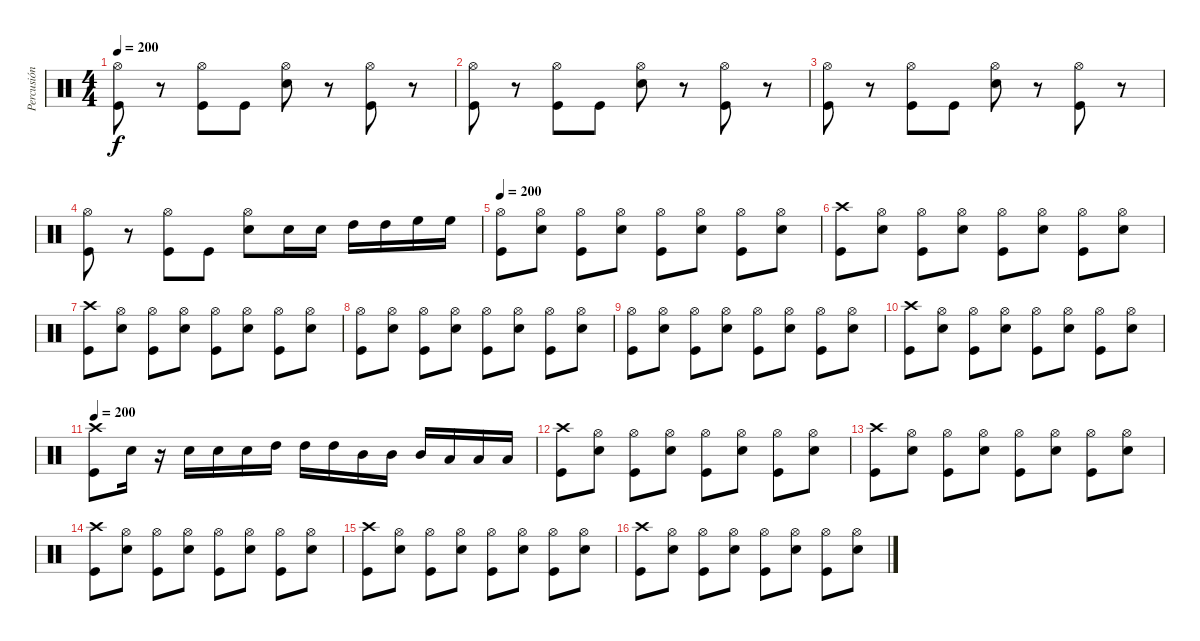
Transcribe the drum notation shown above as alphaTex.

\track ("Percusión" "Percusión") {instrument percussion}
\staff {score}
\articulation defaults
\ts (4 4)
\tempo 200
\clef neutral
\ks c
("Hi-Hat (open)" "Kick (hit)").8{dy f} r.8 ("Hi-Hat (open)" "Kick (hit)").8 "Kick (hit)".8 ("Hi-Hat (open)" "Snare (hit) 2").8 r.8 ("Hi-Hat (open)" "Kick (hit)").8 r.8 |
("Hi-Hat (open)" "Kick (hit)").8 r.8 ("Hi-Hat (open)" "Kick (hit)").8 "Kick (hit)".8 ("Hi-Hat (open)" "Snare (hit) 2").8 r.8 ("Hi-Hat (open)" "Kick (hit)").8 r.8 |
("Hi-Hat (open)" "Kick (hit)").8 r.8 ("Hi-Hat (open)" "Kick (hit)").8 "Kick (hit)".8 ("Hi-Hat (open)" "Snare (hit) 2").8 r.8 ("Hi-Hat (open)" "Kick (hit)").8 r.8 |
("Hi-Hat (open)" "Kick (hit)").8 r.8 ("Hi-Hat (open)" "Kick (hit)").8 "Kick (hit)".8 ("Hi-Hat (open)" "Snare (hit) 2").8 "Snare (hit) 2".16 "Snare (hit) 2".16 "High Tom (hit)".16 "High Tom (hit)".16 "High Floor Tom (hit)".16 "High Floor Tom (hit)".16 |
\tempo 200
("Hi-Hat (open)" "Kick (hit)").8 ("Hi-Hat (open)" "Snare (hit) 2").8 ("Hi-Hat (open)" "Kick (hit)").8 ("Hi-Hat (open)" "Snare (hit) 2").8 ("Hi-Hat (open)" "Kick (hit)").8 ("Hi-Hat (open)" "Snare (hit) 2").8 ("Hi-Hat (open)" "Kick (hit)").8 ("Hi-Hat (open)" "Snare (hit) 2").8 |
("Crash high (hit)" "Kick (hit)").8 ("Hi-Hat (open)" "Snare (hit) 2").8 ("Hi-Hat (open)" "Kick (hit)").8 ("Hi-Hat (open)" "Snare (hit) 2").8 ("Hi-Hat (open)" "Kick (hit)").8 ("Hi-Hat (open)" "Snare (hit) 2").8 ("Hi-Hat (open)" "Kick (hit)").8 ("Hi-Hat (open)" "Snare (hit) 2").8 |
("Crash high (hit)" "Kick (hit)").8 ("Hi-Hat (open)" "Snare (hit) 2").8 ("Hi-Hat (open)" "Kick (hit)").8 ("Hi-Hat (open)" "Snare (hit) 2").8 ("Hi-Hat (open)" "Kick (hit)").8 ("Hi-Hat (open)" "Snare (hit) 2").8 ("Hi-Hat (open)" "Kick (hit)").8 ("Hi-Hat (open)" "Snare (hit) 2").8 |
("Hi-Hat (open)" "Kick (hit)").8 ("Hi-Hat (open)" "Snare (hit) 2").8 ("Hi-Hat (open)" "Kick (hit)").8 ("Hi-Hat (open)" "Snare (hit) 2").8 ("Hi-Hat (open)" "Kick (hit)").8 ("Hi-Hat (open)" "Snare (hit) 2").8 ("Hi-Hat (open)" "Kick (hit)").8 ("Hi-Hat (open)" "Snare (hit) 2").8 |
("Hi-Hat (open)" "Kick (hit)").8 ("Hi-Hat (open)" "Snare (hit) 2").8 ("Hi-Hat (open)" "Kick (hit)").8 ("Hi-Hat (open)" "Snare (hit) 2").8 ("Hi-Hat (open)" "Kick (hit)").8 ("Hi-Hat (open)" "Snare (hit) 2").8 ("Hi-Hat (open)" "Kick (hit)").8 ("Hi-Hat (open)" "Snare (hit) 2").8 |
("Crash high (hit)" "Kick (hit)").8 ("Hi-Hat (open)" "Snare (hit) 2").8 ("Hi-Hat (open)" "Kick (hit)").8 ("Hi-Hat (open)" "Snare (hit) 2").8 ("Hi-Hat (open)" "Kick (hit)").8 ("Hi-Hat (open)" "Snare (hit) 2").8 ("Hi-Hat (open)" "Kick (hit)").8 ("Hi-Hat (open)" "Snare (hit) 2").8 |
\tempo 200
("Crash high (hit)" "Kick (hit)").8 "Snare (hit) 2".16 r.16 "Snare (hit) 2".16 "Snare (hit) 2".16 "Snare (hit) 2".16 "High Tom (hit)".16 "High Tom (hit)".16 "High Tom (hit)".16 "Mid Tom (hit)".16 "Mid Tom (hit)".16 "Mid Tom (hit)".16 "Low Tom (hit)".16 "Low Tom (hit)".16 "Low Tom (hit)".16 |
("Crash high (hit)" "Kick (hit)").8 ("Hi-Hat (open)" "Snare (hit) 2").8 ("Hi-Hat (open)" "Kick (hit)").8 ("Hi-Hat (open)" "Snare (hit) 2").8 ("Hi-Hat (open)" "Kick (hit)").8 ("Hi-Hat (open)" "Snare (hit) 2").8 ("Hi-Hat (open)" "Kick (hit)").8 ("Hi-Hat (open)" "Snare (hit) 2").8 |
("Crash high (hit)" "Kick (hit)").8 ("Hi-Hat (open)" "Snare (hit) 2").8 ("Hi-Hat (open)" "Kick (hit)").8 ("Hi-Hat (open)" "Snare (hit) 2").8 ("Hi-Hat (open)" "Kick (hit)").8 ("Hi-Hat (open)" "Snare (hit) 2").8 ("Hi-Hat (open)" "Kick (hit)").8 ("Hi-Hat (open)" "Snare (hit) 2").8 |
("Crash high (hit)" "Kick (hit)").8 ("Hi-Hat (open)" "Snare (hit) 2").8 ("Hi-Hat (open)" "Kick (hit)").8 ("Hi-Hat (open)" "Snare (hit) 2").8 ("Hi-Hat (open)" "Kick (hit)").8 ("Hi-Hat (open)" "Snare (hit) 2").8 ("Hi-Hat (open)" "Kick (hit)").8 ("Hi-Hat (open)" "Snare (hit) 2").8 |
("Crash high (hit)" "Kick (hit)").8 ("Hi-Hat (open)" "Snare (hit) 2").8 ("Hi-Hat (open)" "Kick (hit)").8 ("Hi-Hat (open)" "Snare (hit) 2").8 ("Hi-Hat (open)" "Kick (hit)").8 ("Hi-Hat (open)" "Snare (hit) 2").8 ("Hi-Hat (open)" "Kick (hit)").8 ("Hi-Hat (open)" "Snare (hit) 2").8 |
("Crash high (hit)" "Kick (hit)").8 ("Hi-Hat (open)" "Snare (hit) 2").8 ("Hi-Hat (open)" "Kick (hit)").8 ("Hi-Hat (open)" "Snare (hit) 2").8 ("Hi-Hat (open)" "Kick (hit)").8 ("Hi-Hat (open)" "Snare (hit) 2").8 ("Hi-Hat (open)" "Kick (hit)").8 ("Hi-Hat (open)" "Snare (hit) 2").8
